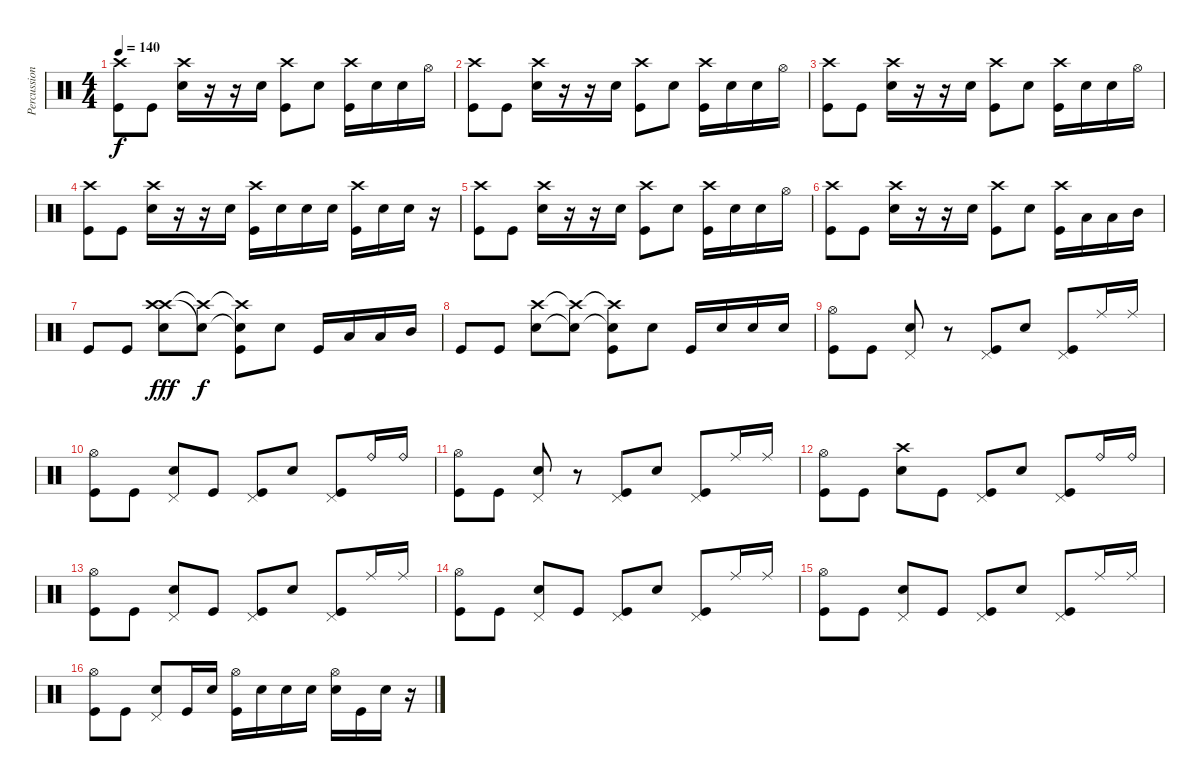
\track ("Percussion" "Percussion") {instrument percussion}
\staff {score}
\articulation defaults
\ts (4 4)
\tempo 140
\clef neutral
\ks c
("Crash high (hit)" "Kick (hit)").8{dy f} "Kick (hit)".8 ("Crash high (hit)" "Snare (hit) 2").16 r.16 r.16 "Snare (hit) 2".16 ("Crash high (hit)" "Kick (hit)").8 "Snare (hit) 2".8 ("Crash high (hit)" "Kick (hit)").16 "Snare (hit) 2".16 "Snare (hit) 2".16 "Hi-Hat (open)".16 |
("Crash high (hit)" "Kick (hit)").8 "Kick (hit)".8 ("Crash high (hit)" "Snare (hit) 2").16 r.16 r.16 "Snare (hit) 2".16 ("Crash high (hit)" "Kick (hit)").8 "Snare (hit) 2".8 ("Crash high (hit)" "Kick (hit)").16 "Snare (hit) 2".16 "Snare (hit) 2".16 "Hi-Hat (open)".16 |
("Crash high (hit)" "Kick (hit)").8 "Kick (hit)".8 ("Crash high (hit)" "Snare (hit) 2").16 r.16 r.16 "Snare (hit) 2".16 ("Crash high (hit)" "Kick (hit)").8 "Snare (hit) 2".8 ("Crash high (hit)" "Kick (hit)").16 "Snare (hit) 2".16 "Snare (hit) 2".16 "Hi-Hat (open)".16 |
("Crash high (hit)" "Kick (hit)").8 "Kick (hit)".8 ("Crash high (hit)" "Snare (hit) 2").16 r.16 r.16 "Snare (hit) 2".16 ("Crash high (hit)" "Kick (hit)").16 "Snare (hit) 2".16 "Snare (hit) 2".16 "Snare (hit) 2".16 ("Crash high (hit)" "Kick (hit)").16 "Snare (hit) 2".16 "Snare (hit) 2".16 r.16 |
("Crash high (hit)" "Kick (hit)").8 "Kick (hit)".8 ("Crash high (hit)" "Snare (hit) 2").16 r.16 r.16 "Snare (hit) 2".16 ("Crash high (hit)" "Kick (hit)").8 "Snare (hit) 2".8 ("Crash high (hit)" "Kick (hit)").16 "Snare (hit) 2".16 "Snare (hit) 2".16 "Hi-Hat (open)".16 |
("Crash high (hit)" "Kick (hit)").8 "Kick (hit)".8 ("Crash high (hit)" "Snare (hit) 2").16 r.16 r.16 "Snare (hit) 2".16 ("Crash high (hit)" "Kick (hit)").8 "Snare (hit) 2".8 ("Crash high (hit)" "Kick (hit)").16 "Low Tom (hit)".16 "Low Tom (hit)".16 "Mid Tom (hit)".16 |
"Kick (hit)".8 "Kick (hit)".8 ("Crash high (hit)" "Crash high (hit)" "Snare (hit) 2").8{dy fff} ("Snare (hit)"{t} "Crash high (hit)"{t}).8{dy f} ("Snare (hit)"{t} "Crash high (hit)"{t} "Kick (hit)").8 "Snare (hit) 2".8 "Kick (hit)".16 "Low Tom (hit)".16 "Low Tom (hit)".16 "Mid Tom (hit)".16 |
"Kick (hit)".8 "Kick (hit)".8 ("Crash high (hit)" "Snare (hit) 2").8 ("Crash high (hit)"{t} "Snare (hit)"{t}).8 ("Crash high (hit)"{t} "Snare (hit) 2"{t} "Kick (hit)").8 "Snare (hit) 2".8 "Kick (hit)".16 "Snare (hit) 2".16 "Snare (hit) 2".16 "Snare (hit) 2".16 |
("Hi-Hat (open)" "Kick (hit)").8 "Kick (hit)".8 ("Pedal Hi-Hat (hit)" "Snare (hit) 2").8 r.8 ("Pedal Hi-Hat (hit)" "Kick (hit)").8 "Snare (hit) 2".8 ("Pedal Hi-Hat (hit)" "Kick (hit)").8 "Ride (middle)".16 "Ride (middle)".16 |
("Hi-Hat (open)" "Kick (hit)").8 "Kick (hit)".8 ("Pedal Hi-Hat (hit)" "Snare (hit) 2").8 "Kick (hit)".8 ("Pedal Hi-Hat (hit)" "Kick (hit)").8 "Snare (hit) 2".8 ("Pedal Hi-Hat (hit)" "Kick (hit)").8 "Ride (bell)".16 "Ride (bell)".16 |
("Hi-Hat (open)" "Kick (hit)").8 "Kick (hit)".8 ("Pedal Hi-Hat (hit)" "Snare (hit) 2").8 r.8 ("Pedal Hi-Hat (hit)" "Kick (hit)").8 "Snare (hit) 2".8 ("Pedal Hi-Hat (hit)" "Kick (hit)").8 "Ride (middle)".16 "Ride (middle)".16 |
("Hi-Hat (open)" "Kick (hit)").8 "Kick (hit)".8 ("Crash high (hit)" "Snare (hit) 2").8 "Kick (hit)".8 ("Pedal Hi-Hat (hit)" "Kick (hit)").8 "Snare (hit) 2".8 ("Pedal Hi-Hat (hit)" "Kick (hit)").8 "Ride (bell)".16 "Ride (bell)".16 |
("Hi-Hat (open)" "Kick (hit)").8 "Kick (hit)".8 ("Pedal Hi-Hat (hit)" "Snare (hit) 2").8 "Kick (hit)".8 ("Pedal Hi-Hat (hit)" "Kick (hit)").8 "Snare (hit) 2".8 ("Pedal Hi-Hat (hit)" "Kick (hit)").8 "Ride (middle)".16 "Ride (middle)".16 |
("Hi-Hat (open)" "Kick (hit)").8 "Kick (hit)".8 ("Pedal Hi-Hat (hit)" "Snare (hit) 2").8 "Kick (hit)".8 ("Pedal Hi-Hat (hit)" "Kick (hit)").8 "Snare (hit) 2".8 ("Pedal Hi-Hat (hit)" "Kick (hit)").8 "Ride (middle)".16 "Ride (middle)".16 |
("Hi-Hat (open)" "Kick (hit)").8 "Kick (hit)".8 ("Pedal Hi-Hat (hit)" "Snare (hit) 2").8 "Kick (hit)".8 ("Pedal Hi-Hat (hit)" "Kick (hit)").8 "Snare (hit) 2".8 ("Pedal Hi-Hat (hit)" "Kick (hit)").8 "Ride (middle)".16 "Ride (middle)".16 |
("Hi-Hat (open)" "Kick (hit)").8 "Kick (hit)".8 ("Pedal Hi-Hat (hit)" "Snare (hit) 2").8 "Kick (hit)".16 "Snare (hit) 2".16 ("Hi-Hat (open)" "Kick (hit)").16 "Snare (hit) 2".16 "Snare (hit) 2".16 "Snare (hit) 2".16 ("Hi-Hat (open)" "Snare (hit) 2").16 "Kick (hit)".16 "Snare (hit) 2".16 r.16
